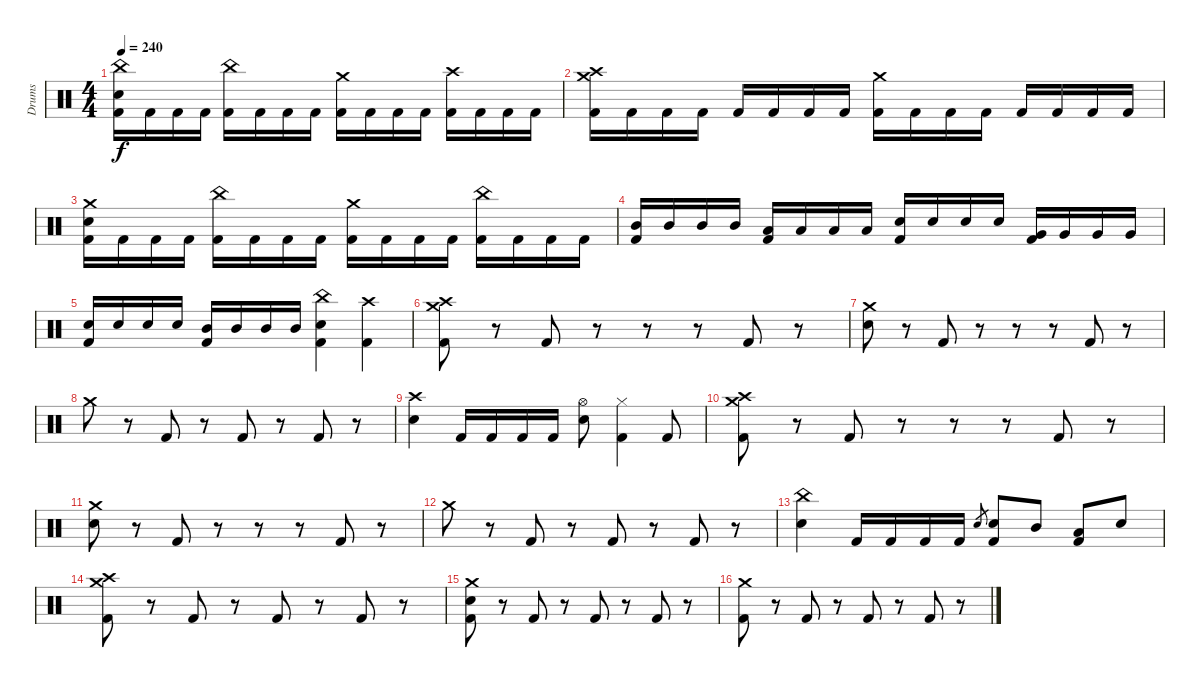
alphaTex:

\track ("Drums" "Drums") {instrument percussion}
\staff
\articulation defaults
\ts (4 4)
\tempo 240
\clef neutral
\ks c
("China (hit)" "Electric Snare (hit)" "Kick (hit) 2").16{dy f} "Kick (hit) 2".16 "Kick (hit) 2".16 "Kick (hit) 2".16 ("China (hit)" "Kick (hit) 2").16 "Kick (hit) 2".16 "Kick (hit) 2".16 "Kick (hit) 2".16 ("Crash medium (hit)" "Kick (hit) 2").16 "Kick (hit) 2".16 "Kick (hit) 2".16 "Kick (hit) 2".16 ("Crash high (hit)" "Kick (hit) 2").16 "Kick (hit) 2".16 "Kick (hit) 2".16 "Kick (hit) 2".16 |
("Crash medium (hit)" "Crash high (hit)" "Kick (hit) 2").16 "Kick (hit) 2".16 "Kick (hit) 2".16 "Kick (hit) 2".16 "Kick (hit) 2".16 "Kick (hit) 2".16 "Kick (hit) 2".16 "Kick (hit) 2".16 ("Crash medium (hit)" "Kick (hit) 2").16 "Kick (hit) 2".16 "Kick (hit) 2".16 "Kick (hit) 2".16 "Kick (hit) 2".16 "Kick (hit) 2".16 "Kick (hit) 2".16 "Kick (hit) 2".16 |
("Crash medium (hit)" "Electric Snare (hit)" "Kick (hit) 2").16 "Kick (hit) 2".16 "Kick (hit) 2".16 "Kick (hit) 2".16 ("China (hit)" "Kick (hit) 2").16 "Kick (hit) 2".16 "Kick (hit) 2".16 "Kick (hit) 2".16 ("Crash medium (hit)" "Kick (hit) 2").16 "Kick (hit) 2".16 "Kick (hit) 2".16 "Kick (hit) 2".16 ("China (hit)" "Kick (hit) 2").16 "Kick (hit) 2".16 "Kick (hit) 2".16 "Kick (hit) 2".16 |
("Mid Tom (hit)" "Kick (hit) 2").16 "Mid Tom (hit)".16 "Mid Tom (hit)".16 "Mid Tom (hit)".16 ("Low Tom (hit)" "Kick (hit) 2").16 "Low Tom (hit)".16 "Low Tom (hit)".16 "Low Tom (hit)".16 ("Electric Snare (hit)" "Kick (hit) 2").16 "Electric Snare (hit)".16 "Electric Snare (hit)".16 "Electric Snare (hit)".16 ("Very Low Tom (hit)" "Kick (hit) 2").16 "Very Low Tom (hit)".16 "Very Low Tom (hit)".16 "Very Low Tom (hit)".16 |
("Electric Snare (hit)" "Kick (hit) 2").16 "Electric Snare (hit)".16 "Electric Snare (hit)".16 "Electric Snare (hit)".16 ("Mid Tom (hit)" "Kick (hit) 2").16 "Mid Tom (hit)".16 "Mid Tom (hit)".16 "Mid Tom (hit)".16 ("China (hit)" "Electric Snare (hit)" "Kick (hit) 2").4 ("Crash high (hit)" "Kick (hit) 2").4 |
("Crash medium (hit)" "Crash high (hit)" "Kick (hit) 2").8 r.8 "Kick (hit) 2".8 r.8 r.8 r.8 "Kick (hit) 2".8 r.8 |
("Crash medium (hit)" "Electric Snare (hit)").8 r.8 "Kick (hit) 2".8 r.8 r.8 r.8 "Kick (hit) 2".8 r.8 |
"Crash medium (hit)".8 r.8 "Kick (hit) 2".8 r.8 "Kick (hit) 2".8 r.8 "Kick (hit) 2".8 r.8 |
("Crash high (hit)" "Electric Snare (hit)").4 "Kick (hit) 2".16 "Kick (hit) 2".16 "Kick (hit) 2".16 "Kick (hit) 2".16 ("Hi-Hat (open)" "Electric Snare (hit)").8 ("Hi-Hat (closed)" "Kick (hit) 2").4 "Kick (hit) 2".8 |
("Crash medium (hit)" "Crash high (hit)" "Kick (hit) 2").8 r.8 "Kick (hit) 2".8 r.8 r.8 r.8 "Kick (hit) 2".8 r.8 |
("Crash medium (hit)" "Electric Snare (hit)").8 r.8 "Kick (hit) 2".8 r.8 r.8 r.8 "Kick (hit) 2".8 r.8 |
"Crash medium (hit)".8 r.8 "Kick (hit) 2".8 r.8 "Kick (hit) 2".8 r.8 "Kick (hit) 2".8 r.8 |
("China (hit)" "Electric Snare (hit)").4 "Kick (hit) 2".16 "Kick (hit) 2".16 "Kick (hit) 2".16 "Kick (hit) 2".16 "Electric Snare (hit)".8{gr} ("Electric Snare (hit)" "Kick (hit) 2").8 "Mid Tom (hit)".8 ("Low Tom (hit)" "Kick (hit) 2").8 "Electric Snare (hit)".8 |
("Crash medium (hit)" "Crash high (hit)" "Kick (hit) 2").8 r.8 "Kick (hit) 2".8 r.8 "Kick (hit) 2".8 r.8 "Kick (hit) 2".8 r.8 |
("Crash medium (hit)" "Electric Snare (hit)" "Kick (hit) 2").8 r.8 "Kick (hit) 2".8 r.8 "Kick (hit) 2".8 r.8 "Kick (hit) 2".8 r.8 |
("Crash medium (hit)" "Kick (hit) 2").8 r.8 "Kick (hit) 2".8 r.8 "Kick (hit) 2".8 r.8 "Kick (hit) 2".8 r.8
